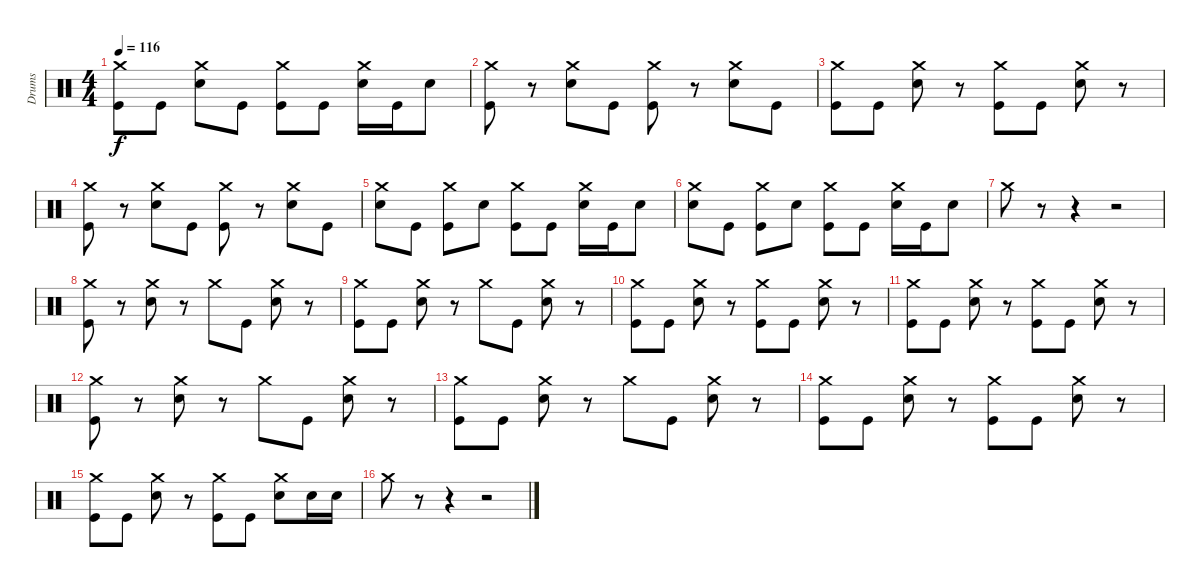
\track ("Drums" "Drums") {instrument percussion}
\staff {score}
\articulation defaults
\ts (4 4)
\tempo 116
\clef neutral
\ks c
("Crash medium (hit)" "Kick (hit)").8{dy f} "Kick (hit)".8 ("Crash medium (hit)" "Snare (hit) 2").8 "Kick (hit)".8 ("Crash medium (hit)" "Kick (hit)").8 "Kick (hit)".8 ("Crash medium (hit)" "Snare (hit) 2").16 "Kick (hit)".16 "Snare (hit) 2".8 |
("Crash medium (hit)" "Kick (hit)").8 r.8 ("Crash medium (hit)" "Snare (hit) 2").8 "Kick (hit)".8 ("Crash medium (hit)" "Kick (hit)").8 r.8 ("Crash medium (hit)" "Snare (hit) 2").8 "Kick (hit)".8 |
("Crash medium (hit)" "Kick (hit)").8 "Kick (hit)".8 ("Crash medium (hit)" "Snare (hit) 2").8 r.8 ("Crash medium (hit)" "Kick (hit)").8 "Kick (hit)".8 ("Crash medium (hit)" "Snare (hit) 2").8 r.8 |
("Crash medium (hit)" "Kick (hit)").8 r.8 ("Crash medium (hit)" "Snare (hit) 2").8 "Kick (hit)".8 ("Crash medium (hit)" "Kick (hit)").8 r.8 ("Crash medium (hit)" "Snare (hit) 2").8 "Kick (hit)".8 |
("Crash medium (hit)" "Snare (hit) 2").8 "Kick (hit)".8 ("Crash medium (hit)" "Kick (hit)").8 "Snare (hit) 2".8 ("Crash medium (hit)" "Kick (hit)").8 "Kick (hit)".8 ("Crash medium (hit)" "Snare (hit) 2").16 "Kick (hit)".16 "Snare (hit) 2".8 |
("Crash medium (hit)" "Snare (hit) 2").8 "Kick (hit)".8 ("Crash medium (hit)" "Kick (hit)").8 "Snare (hit) 2".8 ("Crash medium (hit)" "Kick (hit)").8 "Kick (hit)".8 ("Crash medium (hit)" "Snare (hit) 2").16 "Kick (hit)".16 "Snare (hit) 2".8 |
"Crash medium (hit)".8 r.8 r.4 r.2 |
("Crash medium (hit)" "Kick (hit)").8 r.8 ("Crash medium (hit)" "Snare (hit) 2").8 r.8 "Crash medium (hit)".8 "Kick (hit)".8 ("Crash medium (hit)" "Snare (hit) 2").8 r.8 |
("Crash medium (hit)" "Kick (hit)").8 "Kick (hit)".8 ("Crash medium (hit)" "Snare (hit) 2").8 r.8 "Crash medium (hit)".8 "Kick (hit)".8 ("Crash medium (hit)" "Snare (hit) 2").8 r.8 |
("Crash medium (hit)" "Kick (hit)").8 "Kick (hit)".8 ("Crash medium (hit)" "Snare (hit) 2").8 r.8 ("Crash medium (hit)" "Kick (hit)").8 "Kick (hit)".8 ("Crash medium (hit)" "Snare (hit) 2").8 r.8 |
("Crash medium (hit)" "Kick (hit)").8 "Kick (hit)".8 ("Crash medium (hit)" "Snare (hit) 2").8 r.8 ("Crash medium (hit)" "Kick (hit)").8 "Kick (hit)".8 ("Crash medium (hit)" "Snare (hit) 2").8 r.8 |
("Crash medium (hit)" "Kick (hit)").8 r.8 ("Crash medium (hit)" "Snare (hit) 2").8 r.8 "Crash medium (hit)".8 "Kick (hit)".8 ("Crash medium (hit)" "Snare (hit) 2").8 r.8 |
("Crash medium (hit)" "Kick (hit)").8 "Kick (hit)".8 ("Crash medium (hit)" "Snare (hit) 2").8 r.8 "Crash medium (hit)".8 "Kick (hit)".8 ("Crash medium (hit)" "Snare (hit) 2").8 r.8 |
("Crash medium (hit)" "Kick (hit)").8 "Kick (hit)".8 ("Crash medium (hit)" "Snare (hit) 2").8 r.8 ("Crash medium (hit)" "Kick (hit)").8 "Kick (hit)".8 ("Crash medium (hit)" "Snare (hit) 2").8 r.8 |
("Crash medium (hit)" "Kick (hit)").8 "Kick (hit)".8 ("Crash medium (hit)" "Snare (hit) 2").8 r.8 ("Crash medium (hit)" "Kick (hit)").8 "Kick (hit)".8 ("Crash medium (hit)" "Snare (hit) 2").8 "Snare (hit) 2".16 "Snare (hit) 2".16 |
"Crash medium (hit)".8 r.8 r.4 r.2
